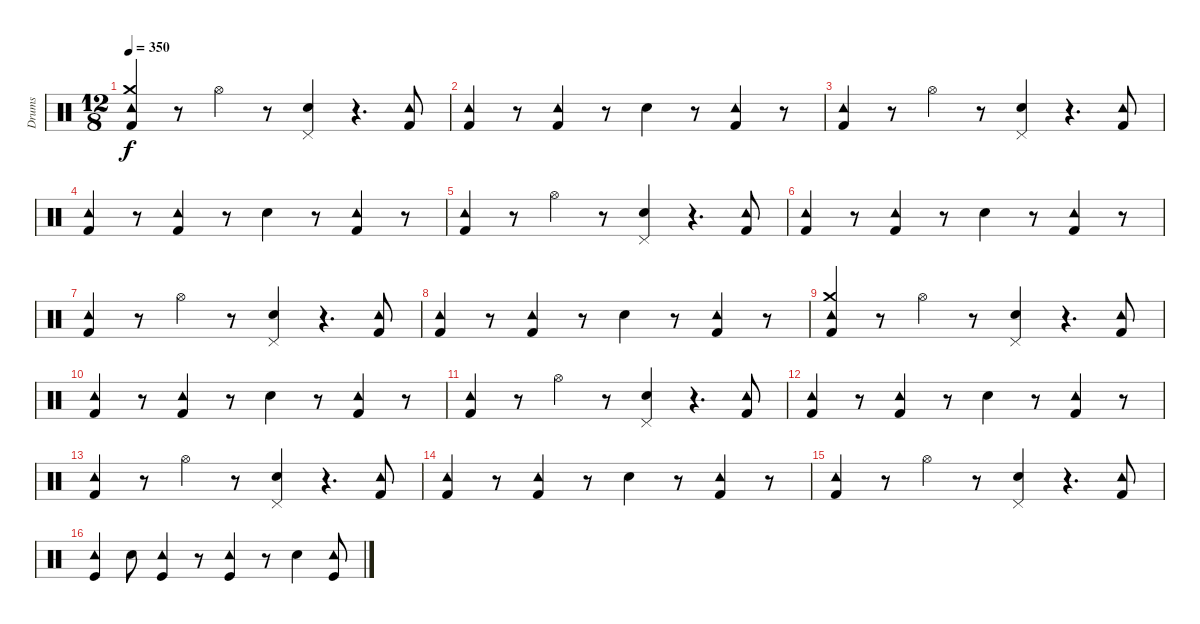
\track ("Drums" "Drums") {instrument percussion}
\staff {score}
\articulation defaults
\ts (12 8)
\tempo 350
\clef neutral
\ks c
("Kick (hit) 2" "Crash medium (hit)" "Tambourine (hit)").4{dy f} r.8 "Hi-Hat (open)".4 r.8 ("Snare (hit) 2" "Pedal Hi-Hat (hit)").4 r.4{d} ("Kick (hit) 2" "Tambourine (hit)").8 |
("Kick (hit) 2" "Tambourine (hit)").4 r.8 ("Kick (hit) 2" "Tambourine (hit)").4 r.8 "Snare (hit) 2".4 r.8 ("Kick (hit) 2" "Tambourine (hit)").4 r.8 |
("Kick (hit) 2" "Tambourine (hit)").4 r.8 "Hi-Hat (open)".4 r.8 ("Snare (hit) 2" "Pedal Hi-Hat (hit)").4 r.4{d} ("Kick (hit) 2" "Tambourine (hit)").8 |
("Kick (hit) 2" "Tambourine (hit)").4 r.8 ("Kick (hit) 2" "Tambourine (hit)").4 r.8 "Snare (hit) 2".4 r.8 ("Kick (hit) 2" "Tambourine (hit)").4 r.8 |
("Kick (hit) 2" "Tambourine (hit)").4 r.8 "Hi-Hat (open)".4 r.8 ("Snare (hit) 2" "Pedal Hi-Hat (hit)").4 r.4{d} ("Kick (hit) 2" "Tambourine (hit)").8 |
("Kick (hit) 2" "Tambourine (hit)").4 r.8 ("Kick (hit) 2" "Tambourine (hit)").4 r.8 "Snare (hit) 2".4 r.8 ("Kick (hit) 2" "Tambourine (hit)").4 r.8 |
("Kick (hit) 2" "Tambourine (hit)").4 r.8 "Hi-Hat (open)".4 r.8 ("Snare (hit) 2" "Pedal Hi-Hat (hit)").4 r.4{d} ("Kick (hit) 2" "Tambourine (hit)").8 |
("Kick (hit) 2" "Tambourine (hit)").4 r.8 ("Kick (hit) 2" "Tambourine (hit)").4 r.8 "Snare (hit) 2".4 r.8 ("Kick (hit) 2" "Tambourine (hit)").4 r.8 |
("Kick (hit) 2" "Crash medium (hit)" "Tambourine (hit)").4 r.8 "Hi-Hat (open)".4 r.8 ("Snare (hit) 2" "Pedal Hi-Hat (hit)").4 r.4{d} ("Kick (hit) 2" "Tambourine (hit)").8 |
("Kick (hit) 2" "Tambourine (hit)").4 r.8 ("Kick (hit) 2" "Tambourine (hit)").4 r.8 "Snare (hit) 2".4 r.8 ("Kick (hit) 2" "Tambourine (hit)").4 r.8 |
("Kick (hit) 2" "Tambourine (hit)").4 r.8 "Hi-Hat (open)".4 r.8 ("Snare (hit) 2" "Pedal Hi-Hat (hit)").4 r.4{d} ("Kick (hit) 2" "Tambourine (hit)").8 |
("Kick (hit) 2" "Tambourine (hit)").4 r.8 ("Kick (hit) 2" "Tambourine (hit)").4 r.8 "Snare (hit) 2".4 r.8 ("Kick (hit) 2" "Tambourine (hit)").4 r.8 |
("Kick (hit) 2" "Tambourine (hit)").4 r.8 "Hi-Hat (open)".4 r.8 ("Snare (hit) 2" "Pedal Hi-Hat (hit)").4 r.4{d} ("Kick (hit) 2" "Tambourine (hit)").8 |
("Kick (hit) 2" "Tambourine (hit)").4 r.8 ("Kick (hit) 2" "Tambourine (hit)").4 r.8 "Snare (hit) 2".4 r.8 ("Kick (hit) 2" "Tambourine (hit)").4 r.8 |
("Kick (hit) 2" "Tambourine (hit)").4 r.8 "Hi-Hat (open)".4 r.8 ("Snare (hit) 2" "Pedal Hi-Hat (hit)").4 r.4{d} ("Kick (hit) 2" "Tambourine (hit)").8 |
("Kick (hit)" "Tambourine (hit)").4 "Snare (hit) 2".8 ("Kick (hit)" "Tambourine (hit)").4 r.8 ("Kick (hit)" "Tambourine (hit)").4 r.8 "Snare (hit) 2".4 ("Kick (hit)" "Tambourine (hit)").8
